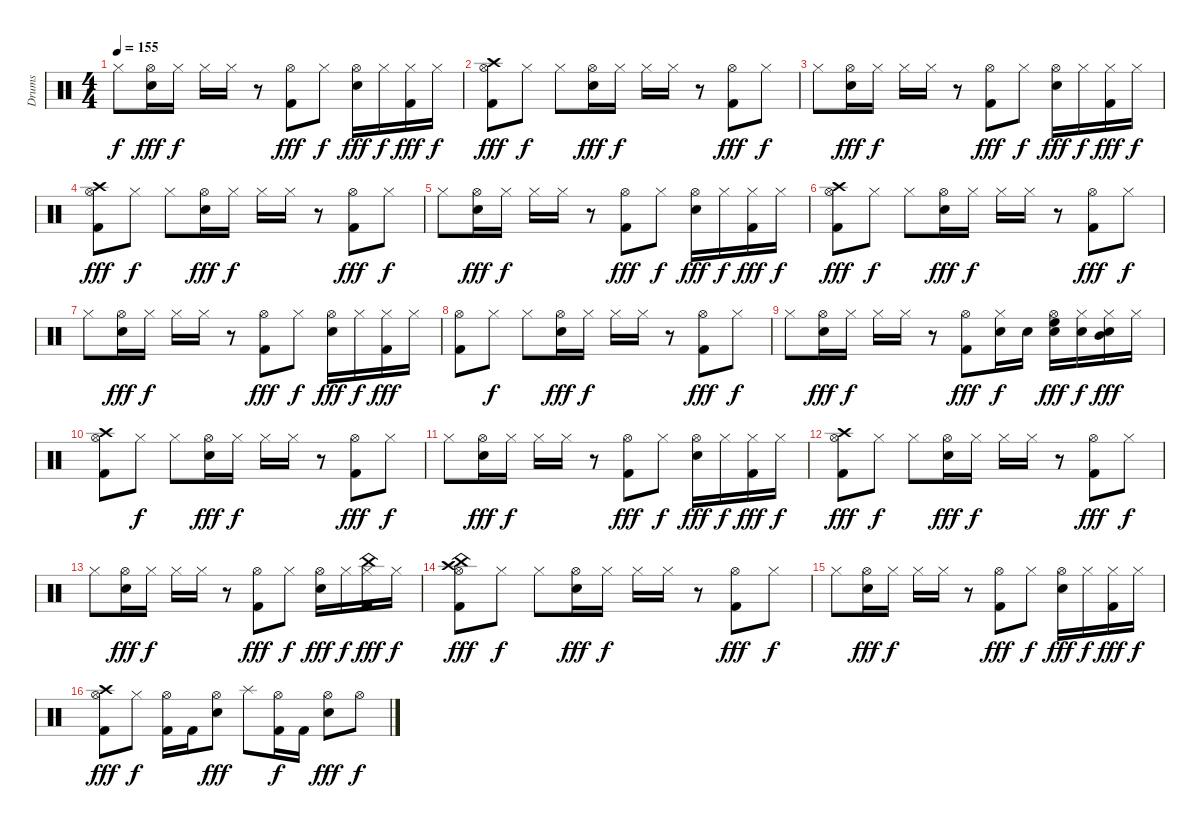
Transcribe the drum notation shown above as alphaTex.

\track ("Drums" "Drums") {instrument percussion}
\staff {score}
\articulation defaults
\ts (4 4)
\tempo 155
\clef neutral
\ks c "Hi-Hat (closed)".8{dy f}
("Hi-Hat (open)" "Electric Snare (hit)").16{dy fff} "Hi-Hat (closed)".16{dy f} "Hi-Hat (closed)".16 "Hi-Hat (closed)".16 r.8 ("Hi-Hat (open)" "Kick (hit) 2").8{dy fff} "Hi-Hat (closed)".8{dy f} ("Hi-Hat (open)" "Electric Snare (hit)").16{dy fff} "Hi-Hat (closed)".16{dy f} ("Hi-Hat (closed)" "Kick (hit) 2").16{dy fff} "Hi-Hat (closed)".16{dy f} |
("Crash high (hit)" "Kick (hit) 2" "Hi-Hat (open)").8{dy fff} "Hi-Hat (closed)".8{dy f} "Hi-Hat (closed)".8 ("Hi-Hat (open)" "Electric Snare (hit)").16{dy fff} "Hi-Hat (closed)".16{dy f} "Hi-Hat (closed)".16 "Hi-Hat (closed)".16 r.8 ("Hi-Hat (open)" "Kick (hit) 2").8{dy fff} "Hi-Hat (closed)".8{dy f} |
"Hi-Hat (closed)".8 ("Hi-Hat (open)" "Electric Snare (hit)").16{dy fff} "Hi-Hat (closed)".16{dy f} "Hi-Hat (closed)".16 "Hi-Hat (closed)".16 r.8 ("Hi-Hat (open)" "Kick (hit) 2").8{dy fff} "Hi-Hat (closed)".8{dy f} ("Hi-Hat (open)" "Electric Snare (hit)").16{dy fff} "Hi-Hat (closed)".16{dy f} ("Hi-Hat (closed)" "Kick (hit) 2").16{dy fff} "Hi-Hat (closed)".16{dy f} |
("Crash high (hit)" "Kick (hit) 2" "Hi-Hat (open)").8{dy fff} "Hi-Hat (closed)".8{dy f} "Hi-Hat (closed)".8 ("Hi-Hat (open)" "Electric Snare (hit)").16{dy fff} "Hi-Hat (closed)".16{dy f} "Hi-Hat (closed)".16 "Hi-Hat (closed)".16 r.8 ("Hi-Hat (open)" "Kick (hit) 2").8{dy fff} "Hi-Hat (closed)".8{dy f} |
"Hi-Hat (closed)".8 ("Hi-Hat (open)" "Electric Snare (hit)").16{dy fff} "Hi-Hat (closed)".16{dy f} "Hi-Hat (closed)".16 "Hi-Hat (closed)".16 r.8 ("Hi-Hat (open)" "Kick (hit) 2").8{dy fff} "Hi-Hat (closed)".8{dy f} ("Hi-Hat (open)" "Electric Snare (hit)").16{dy fff} "Hi-Hat (closed)".16{dy f} ("Hi-Hat (closed)" "Kick (hit) 2").16{dy fff} "Hi-Hat (closed)".16{dy f} |
("Crash high (hit)" "Kick (hit) 2" "Hi-Hat (open)").8{dy fff} "Hi-Hat (closed)".8{dy f} "Hi-Hat (closed)".8 ("Hi-Hat (open)" "Electric Snare (hit)").16{dy fff} "Hi-Hat (closed)".16{dy f} "Hi-Hat (closed)".16 "Hi-Hat (closed)".16 r.8 ("Hi-Hat (open)" "Kick (hit) 2").8{dy fff} "Hi-Hat (closed)".8{dy f} |
"Hi-Hat (closed)".8 ("Hi-Hat (open)" "Electric Snare (hit)").16{dy fff} "Hi-Hat (closed)".16{dy f} "Hi-Hat (closed)".16 "Hi-Hat (closed)".16 r.8 ("Hi-Hat (open)" "Kick (hit) 2").8{dy fff} "Hi-Hat (closed)".8{dy f} ("Hi-Hat (open)" "Electric Snare (hit)").16{dy fff} "Hi-Hat (closed)".16{dy f} ("Hi-Hat (closed)" "Kick (hit) 2").16{dy fff} "Hi-Hat (closed)".16 |
("Hi-Hat (open)" "Kick (hit) 2").8 "Hi-Hat (closed)".8{dy f} "Hi-Hat (closed)".8 ("Hi-Hat (open)" "Electric Snare (hit)").16{dy fff} "Hi-Hat (closed)".16{dy f} "Hi-Hat (closed)".16 "Hi-Hat (closed)".16 r.8 ("Hi-Hat (open)" "Kick (hit) 2").8{dy fff} "Hi-Hat (closed)".8{dy f} |
"Hi-Hat (closed)".8 ("Hi-Hat (open)" "Electric Snare (hit)").16{dy fff} "Hi-Hat (closed)".16{dy f} "Hi-Hat (closed)".16 "Hi-Hat (closed)".16 r.8 ("Hi-Hat (open)" "Kick (hit) 2").8{dy fff} ("Electric Snare (hit)" "Hi-Hat (closed)").16{dy f} "Electric Snare (hit)".16 ("High Floor Tom (hit)" "Hi-Hat (open)" "Electric Snare (hit)").16{dy fff} ("Electric Snare (hit)" "Hi-Hat (closed)").16{dy f} ("Hi-Hat (closed)" "Electric Snare (hit)" "Mid Tom (hit)").16{dy fff} "Hi-Hat (closed)".16 |
("Crash high (hit)" "Kick (hit) 2" "Hi-Hat (open)").8 "Hi-Hat (closed)".8{dy f} "Hi-Hat (closed)".8 ("Hi-Hat (open)" "Electric Snare (hit)").16{dy fff} "Hi-Hat (closed)".16{dy f} "Hi-Hat (closed)".16 "Hi-Hat (closed)".16 r.8 ("Hi-Hat (open)" "Kick (hit) 2").8{dy fff} "Hi-Hat (closed)".8{dy f} |
"Hi-Hat (closed)".8 ("Hi-Hat (open)" "Electric Snare (hit)").16{dy fff} "Hi-Hat (closed)".16{dy f} "Hi-Hat (closed)".16 "Hi-Hat (closed)".16 r.8 ("Hi-Hat (open)" "Kick (hit) 2").8{dy fff} "Hi-Hat (closed)".8{dy f} ("Hi-Hat (open)" "Electric Snare (hit)").16{dy fff} "Hi-Hat (closed)".16{dy f} ("Hi-Hat (closed)" "Kick (hit) 2").16{dy fff} "Hi-Hat (closed)".16{dy f} |
("Crash high (hit)" "Kick (hit) 2" "Hi-Hat (open)").8{dy fff} "Hi-Hat (closed)".8{dy f} "Hi-Hat (closed)".8 ("Hi-Hat (open)" "Electric Snare (hit)").16{dy fff} "Hi-Hat (closed)".16{dy f} "Hi-Hat (closed)".16 "Hi-Hat (closed)".16 r.8 ("Hi-Hat (open)" "Kick (hit) 2").8{dy fff} "Hi-Hat (closed)".8{dy f} |
"Hi-Hat (closed)".8 ("Hi-Hat (open)" "Electric Snare (hit)").16{dy fff} "Hi-Hat (closed)".16{dy f} "Hi-Hat (closed)".16 "Hi-Hat (closed)".16 r.8 ("Hi-Hat (open)" "Kick (hit) 2").8{dy fff} "Hi-Hat (closed)".8{dy f} ("Hi-Hat (open)" "Electric Snare (hit)").16{dy fff} "Hi-Hat (closed)".16{dy f} ("China (hit)" "Hi-Hat (closed)" "Kick (hit) 2").16{dy fff} "Hi-Hat (closed)".16{dy f} |
("China (hit)" "Crash high (hit)" "Kick (hit) 2" "Hi-Hat (open)").8{dy fff} "Hi-Hat (closed)".8{dy f} "Hi-Hat (closed)".8 ("Hi-Hat (open)" "Electric Snare (hit)").16{dy fff} "Hi-Hat (closed)".16{dy f} "Hi-Hat (closed)".16 "Hi-Hat (closed)".16 r.8 ("Hi-Hat (open)" "Kick (hit) 2").8{dy fff} "Hi-Hat (closed)".8{dy f} |
"Hi-Hat (closed)".8 ("Hi-Hat (open)" "Electric Snare (hit)").16{dy fff} "Hi-Hat (closed)".16{dy f} "Hi-Hat (closed)".16 "Hi-Hat (closed)".16 r.8 ("Hi-Hat (open)" "Kick (hit) 2").8{dy fff} "Hi-Hat (closed)".8{dy f} ("Hi-Hat (open)" "Electric Snare (hit)").16{dy fff} "Hi-Hat (closed)".16{dy f} ("Hi-Hat (closed)" "Kick (hit) 2").16{dy fff} "Hi-Hat (closed)".16{dy f} |
("Crash high (hit)" "Kick (hit) 2" "Hi-Hat (open)").8{dy fff} "Hi-Hat (closed)".8{dy f} ("Kick (hit) 2" "Hi-Hat (open)").16 "Kick (hit) 2".16 ("Hi-Hat (open)" "Electric Snare (hit)").8{dy fff} "Splash (hit)".8 ("Hi-Hat (open)" "Kick (hit) 2").16{dy f} "Kick (hit) 2".16 ("Electric Snare (hit)" "Hi-Hat (open)").8{dy fff} "Hi-Hat (open)".8{dy f}
